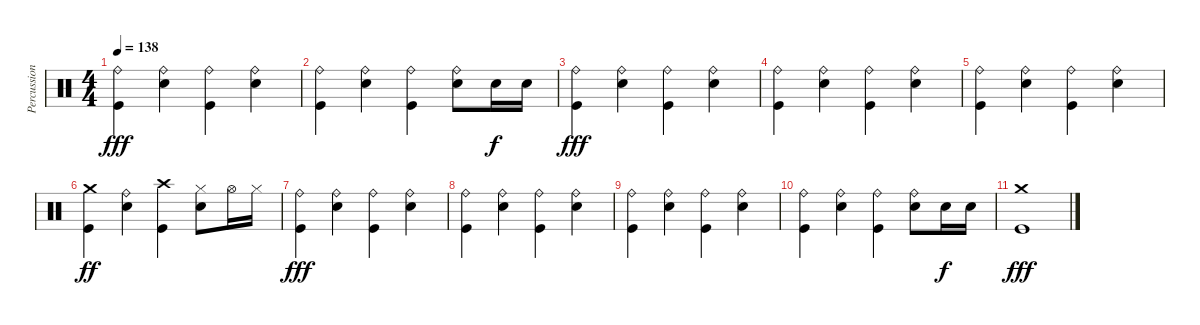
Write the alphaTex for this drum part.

\track ("Percussions" "Percussion") {instrument percussion}
\staff {score}
\articulation defaults
\ts (4 4)
\tempo 138
\clef neutral
\ks c
("Ride (bell)" "Kick (hit)").4{dy fff} ("Ride (bell)" "Snare (hit) 2").4 ("Ride (bell)" "Kick (hit)").4 ("Ride (bell)" "Snare (hit) 2").4 |
("Ride (bell)" "Kick (hit)").4 ("Ride (bell)" "Snare (hit) 2").4 ("Ride (bell)" "Kick (hit)").4 ("Ride (bell)" "Snare (hit) 2").8 "Snare (hit) 2".16{dy f} "Snare (hit) 2".16 |
("Ride (bell)" "Kick (hit)").4{dy fff} ("Ride (bell)" "Snare (hit) 2").4 ("Ride (bell)" "Kick (hit)").4 ("Ride (bell)" "Snare (hit) 2").4 |
("Ride (bell)" "Kick (hit)").4 ("Ride (bell)" "Snare (hit) 2").4 ("Ride (bell)" "Kick (hit)").4 ("Ride (bell)" "Snare (hit) 2").4 |
("Ride (bell)" "Kick (hit)").4 ("Ride (bell)" "Snare (hit) 2").4 ("Ride (bell)" "Kick (hit)").4 ("Ride (bell)" "Snare (hit) 2").4 |
("Crash medium (hit)" "Kick (hit)").4{dy ff} ("Ride (bell)" "Snare (hit) 2").4 ("Crash high (hit)" "Kick (hit)").4 ("Hi-Hat (closed)" "Snare (hit) 2").8 "Hi-Hat (open)".16 "Hi-Hat (closed)".16 |
("Ride (bell)" "Kick (hit)").4{dy fff} ("Ride (bell)" "Snare (hit) 2").4 ("Ride (bell)" "Kick (hit)").4 ("Ride (bell)" "Snare (hit) 2").4 |
("Ride (bell)" "Kick (hit)").4 ("Ride (bell)" "Snare (hit) 2").4 ("Ride (bell)" "Kick (hit)").4 ("Ride (bell)" "Snare (hit) 2").4 |
("Ride (bell)" "Kick (hit)").4 ("Ride (bell)" "Snare (hit) 2").4 ("Ride (bell)" "Kick (hit)").4 ("Ride (bell)" "Snare (hit) 2").4 |
("Ride (bell)" "Kick (hit)").4 ("Ride (bell)" "Snare (hit) 2").4 ("Ride (bell)" "Kick (hit)").4 ("Ride (bell)" "Snare (hit) 2").8 "Snare (hit) 2".16{dy f} "Snare (hit) 2".16 |
("Crash medium (hit)" "Kick (hit)").1{dy fff}
